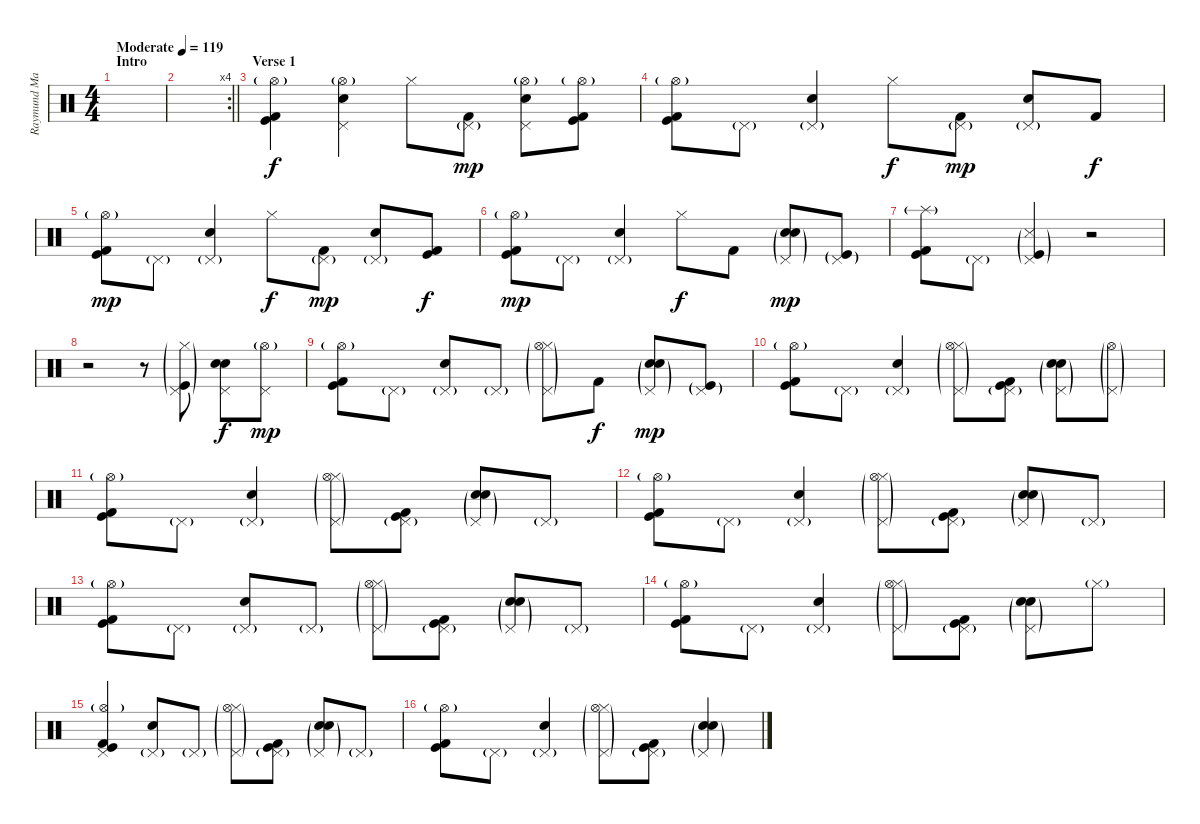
\track ("Raymund Marasigan(Drums)" "Raymund Ma") {instrument percussion}
\staff {score}
\articulation defaults
\ts (4 4)
\section ("" "Intro")
\tempo (119 "Moderate")
\clef neutral
\ks c
|
\rc 4
\barLineRight lightlight
|
\section ("" "Verse 1")
("Kick (hit) 2" "Kick (hit)" "Hi-Hat (open)"{g}).4 ("Pedal Hi-Hat (hit)" "Electric Snare (hit)" "Hi-Hat (open)"{g}).4 "Hi-Hat (closed)".8{dy f} ("Pedal Hi-Hat (hit)"{g} "Kick (hit) 2").8{dy mp} ("Pedal Hi-Hat (hit)" "Electric Snare (hit)" "Hi-Hat (open)"{g}).8 ("Kick (hit) 2" "Kick (hit)" "Hi-Hat (open)"{g}).8 |
("Kick (hit) 2" "Kick (hit)" "Hi-Hat (open)"{g}).8 "Pedal Hi-Hat (hit)"{g}.8 ("Pedal Hi-Hat (hit)"{g} "Electric Snare (hit)").4 "Hi-Hat (closed)".8{dy f} ("Pedal Hi-Hat (hit)"{g} "Kick (hit) 2").8{dy mp} ("Pedal Hi-Hat (hit)"{g} "Electric Snare (hit)").8 "Kick (hit) 2".8{dy f} |
("Kick (hit) 2" "Kick (hit)" "Hi-Hat (open)"{g}).8{dy mp} "Pedal Hi-Hat (hit)"{g}.8 ("Pedal Hi-Hat (hit)"{g} "Electric Snare (hit)").4 "Hi-Hat (closed)".8{dy f} ("Pedal Hi-Hat (hit)"{g} "Kick (hit) 2").8{dy mp} ("Pedal Hi-Hat (hit)"{g} "Electric Snare (hit)").8 ("Kick (hit) 2" "Kick (hit)").8{dy f} |
("Kick (hit) 2" "Kick (hit)" "Hi-Hat (open)"{g}).8{dy mp} "Pedal Hi-Hat (hit)"{g}.8 ("Pedal Hi-Hat (hit)"{g} "Electric Snare (hit)").4 "Hi-Hat (closed)".8{dy f} "Kick (hit) 2".8 ("Pedal Hi-Hat (hit)"{g} "Electric Snare (hit)" "Snare (hit) 2"{g}).8{dy mp} ("Pedal Hi-Hat (hit)"{g} "Kick (hit)"{g}).8 |
("Kick (hit) 2" "Kick (hit)" "Splash (hit)"{g}).8 "Pedal Hi-Hat (hit)"{g}.8 ("Pedal Hi-Hat (hit)"{g} "Kick (hit)"{g} "Snare (side stick) 3"{g}).4 r.2 |
r.2 r.8 ("Pedal Hi-Hat (hit)"{g} "Hi-Hat (closed)"{g} "Kick (hit)"{g}).8 ("Pedal Hi-Hat (hit)" "Electric Snare (hit)" "Snare (hit) 2").8{dy f} ("Pedal Hi-Hat (hit)" "Hi-Hat (open)"{g}).8{dy mp} |
("Kick (hit) 2" "Kick (hit)" "Hi-Hat (open)"{g}).8 "Pedal Hi-Hat (hit)"{g}.8 ("Pedal Hi-Hat (hit)"{g} "Electric Snare (hit)").8 "Pedal Hi-Hat (hit)"{g}.8 ("Pedal Hi-Hat (hit)"{g} "Hi-Hat (closed)"{g} "Hi-Hat (open)"{g}).8 "Kick (hit) 2".8{dy f} ("Pedal Hi-Hat (hit)"{g} "Electric Snare (hit)" "Snare (hit) 2"{g}).8{dy mp} ("Pedal Hi-Hat (hit)"{g} "Kick (hit)"{g}).8 |
("Kick (hit) 2" "Kick (hit)" "Hi-Hat (open)"{g}).8 "Pedal Hi-Hat (hit)"{g}.8 ("Pedal Hi-Hat (hit)"{g} "Electric Snare (hit)").4 ("Pedal Hi-Hat (hit)"{g} "Hi-Hat (closed)"{g} "Hi-Hat (open)"{g}).8 ("Pedal Hi-Hat (hit)"{g} "Kick (hit) 2" "Kick (hit)").8 ("Pedal Hi-Hat (hit)"{g} "Electric Snare (hit)" "Snare (hit) 2"{g}).8 ("Pedal Hi-Hat (hit)"{g} "Hi-Hat (open)"{g}).8 |
("Kick (hit) 2" "Kick (hit)" "Hi-Hat (open)"{g}).8 "Pedal Hi-Hat (hit)"{g}.8 ("Pedal Hi-Hat (hit)"{g} "Electric Snare (hit)").4 ("Pedal Hi-Hat (hit)"{g} "Hi-Hat (closed)"{g} "Hi-Hat (open)"{g}).8 ("Pedal Hi-Hat (hit)"{g} "Kick (hit) 2" "Kick (hit)").8 ("Pedal Hi-Hat (hit)"{g} "Electric Snare (hit)" "Snare (hit) 2"{g}).8 "Pedal Hi-Hat (hit)"{g}.8 |
("Kick (hit) 2" "Kick (hit)" "Hi-Hat (open)"{g}).8 "Pedal Hi-Hat (hit)"{g}.8 ("Pedal Hi-Hat (hit)"{g} "Electric Snare (hit)").4 ("Pedal Hi-Hat (hit)"{g} "Hi-Hat (closed)"{g} "Hi-Hat (open)"{g}).8 ("Pedal Hi-Hat (hit)"{g} "Kick (hit) 2" "Kick (hit)").8 ("Pedal Hi-Hat (hit)"{g} "Electric Snare (hit)" "Snare (hit) 2"{g}).8 "Pedal Hi-Hat (hit)"{g}.8 |
("Kick (hit) 2" "Kick (hit)" "Hi-Hat (open)"{g}).8 "Pedal Hi-Hat (hit)"{g}.8 ("Pedal Hi-Hat (hit)"{g} "Electric Snare (hit)").8 "Pedal Hi-Hat (hit)"{g}.8 ("Pedal Hi-Hat (hit)"{g} "Hi-Hat (closed)"{g} "Hi-Hat (open)"{g}).8 ("Pedal Hi-Hat (hit)"{g} "Kick (hit) 2" "Kick (hit)").8 ("Pedal Hi-Hat (hit)"{g} "Electric Snare (hit)" "Snare (hit) 2"{g}).8 "Pedal Hi-Hat (hit)"{g}.8 |
("Kick (hit) 2" "Kick (hit)" "Hi-Hat (open)"{g}).8 "Pedal Hi-Hat (hit)"{g}.8 ("Pedal Hi-Hat (hit)"{g} "Electric Snare (hit)").4 ("Pedal Hi-Hat (hit)"{g} "Hi-Hat (closed)"{g} "Hi-Hat (open)"{g}).8 ("Pedal Hi-Hat (hit)"{g} "Kick (hit) 2" "Kick (hit)").8 ("Pedal Hi-Hat (hit)"{g} "Electric Snare (hit)" "Snare (hit) 2"{g}).8 "Hi-Hat (closed)"{g}.8 |
("Pedal Hi-Hat (hit)" "Kick (hit) 2" "Kick (hit)" "Hi-Hat (open)"{g}).4 ("Pedal Hi-Hat (hit)"{g} "Electric Snare (hit)").8 "Pedal Hi-Hat (hit)"{g}.8 ("Pedal Hi-Hat (hit)"{g} "Hi-Hat (closed)"{g} "Hi-Hat (open)"{g}).8 ("Pedal Hi-Hat (hit)"{g} "Kick (hit) 2" "Kick (hit)").8 ("Pedal Hi-Hat (hit)"{g} "Electric Snare (hit)" "Snare (hit) 2"{g}).8 "Pedal Hi-Hat (hit)"{g}.8 |
("Kick (hit) 2" "Kick (hit)" "Hi-Hat (open)"{g}).8 "Pedal Hi-Hat (hit)"{g}.8 ("Pedal Hi-Hat (hit)"{g} "Electric Snare (hit)").4 ("Pedal Hi-Hat (hit)"{g} "Hi-Hat (closed)"{g} "Hi-Hat (open)"{g}).8 ("Pedal Hi-Hat (hit)"{g} "Kick (hit) 2" "Kick (hit)").8 ("Pedal Hi-Hat (hit)"{g} "Electric Snare (hit)" "Snare (hit) 2"{g}).4
